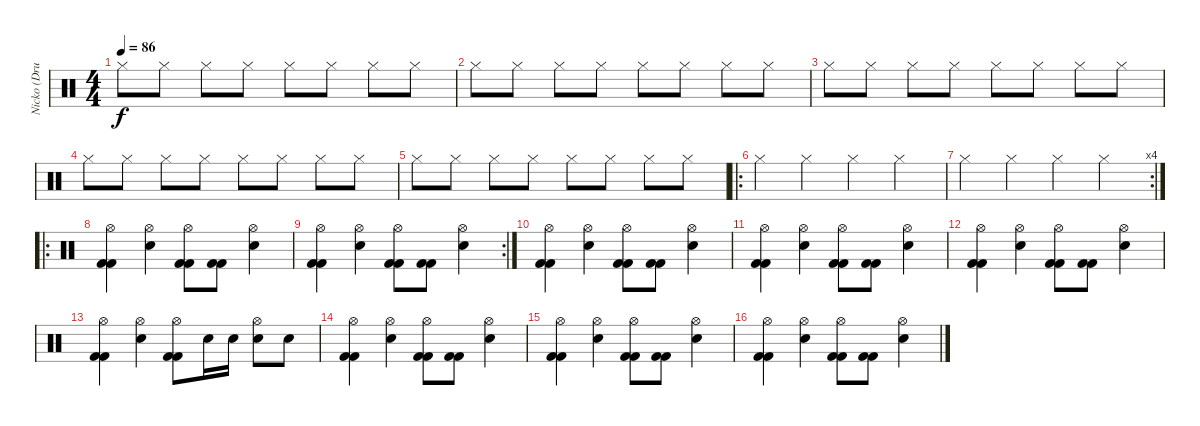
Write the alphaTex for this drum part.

\track ("Nicko (Drums)" "Nicko (Dru") {instrument percussion}
\staff {score}
\articulation defaults
\ts (4 4)
\tempo 86
\clef neutral
\ks c "Hi-Hat (closed)".8{dy f} "Hi-Hat (closed)".8 "Hi-Hat (closed)".8 "Hi-Hat (closed)".8 "Hi-Hat (closed)".8 "Hi-Hat (closed)".8 "Hi-Hat (closed)".8 "Hi-Hat (closed)".8
|
"Hi-Hat (closed)".8 "Hi-Hat (closed)".8 "Hi-Hat (closed)".8 "Hi-Hat (closed)".8 "Hi-Hat (closed)".8 "Hi-Hat (closed)".8 "Hi-Hat (closed)".8 "Hi-Hat (closed)".8 |
"Hi-Hat (closed)".8 "Hi-Hat (closed)".8 "Hi-Hat (closed)".8 "Hi-Hat (closed)".8 "Hi-Hat (closed)".8 "Hi-Hat (closed)".8 "Hi-Hat (closed)".8 "Hi-Hat (closed)".8 |
"Hi-Hat (closed)".8 "Hi-Hat (closed)".8 "Hi-Hat (closed)".8 "Hi-Hat (closed)".8 "Hi-Hat (closed)".8 "Hi-Hat (closed)".8 "Hi-Hat (closed)".8 "Hi-Hat (closed)".8 |
"Hi-Hat (closed)".8 "Hi-Hat (closed)".8 "Hi-Hat (closed)".8 "Hi-Hat (closed)".8 "Hi-Hat (closed)".8 "Hi-Hat (closed)".8 "Hi-Hat (closed)".8 "Hi-Hat (closed)".8 |
\ro "Hi-Hat (closed)".4 "Hi-Hat (closed)".4 "Hi-Hat (closed)".4 "Hi-Hat (closed)".4
|
\rc 4 "Hi-Hat (closed)".4 "Hi-Hat (closed)".4 "Hi-Hat (closed)".4 "Hi-Hat (closed)".4
|
\ro
("Hi-Hat (open)" "Kick (hit) 2" "Kick (hit) 2").4 ("Hi-Hat (open)" "Snare (hit) 2").4 ("Hi-Hat (open)" "Kick (hit) 2" "Kick (hit) 2").8 ("Kick (hit) 2" "Kick (hit) 2").8 ("Hi-Hat (open)" "Snare (hit) 2").4 |
\rc 2
("Hi-Hat (open)" "Kick (hit) 2" "Kick (hit) 2").4 ("Hi-Hat (open)" "Snare (hit) 2").4 ("Hi-Hat (open)" "Kick (hit) 2" "Kick (hit) 2").8 ("Kick (hit) 2" "Kick (hit) 2").8 ("Hi-Hat (open)" "Snare (hit) 2").4 |
("Hi-Hat (open)" "Kick (hit) 2" "Kick (hit) 2").4 ("Hi-Hat (open)" "Snare (hit) 2").4 ("Hi-Hat (open)" "Kick (hit) 2" "Kick (hit) 2").8 ("Kick (hit) 2" "Kick (hit) 2").8 ("Hi-Hat (open)" "Snare (hit) 2").4 |
("Hi-Hat (open)" "Kick (hit) 2" "Kick (hit) 2").4 ("Hi-Hat (open)" "Snare (hit) 2").4 ("Hi-Hat (open)" "Kick (hit) 2" "Kick (hit) 2").8 ("Kick (hit) 2" "Kick (hit) 2").8 ("Hi-Hat (open)" "Snare (hit) 2").4 |
("Hi-Hat (open)" "Kick (hit) 2" "Kick (hit) 2").4 ("Hi-Hat (open)" "Snare (hit) 2").4 ("Hi-Hat (open)" "Kick (hit) 2" "Kick (hit) 2").8 ("Kick (hit) 2" "Kick (hit) 2").8 ("Hi-Hat (open)" "Snare (hit) 2").4 |
("Hi-Hat (open)" "Kick (hit) 2" "Kick (hit) 2").4 ("Hi-Hat (open)" "Snare (hit) 2").4 ("Hi-Hat (open)" "Kick (hit) 2" "Kick (hit) 2").8 "Snare (hit) 2".16 "Snare (hit) 2".16 ("Hi-Hat (open)" "Snare (hit) 2").8 "Snare (hit) 2".8 |
("Hi-Hat (open)" "Kick (hit) 2" "Kick (hit) 2").4 ("Hi-Hat (open)" "Snare (hit) 2").4 ("Hi-Hat (open)" "Kick (hit) 2" "Kick (hit) 2").8 ("Kick (hit) 2" "Kick (hit) 2").8 ("Hi-Hat (open)" "Snare (hit) 2").4 |
("Hi-Hat (open)" "Kick (hit) 2" "Kick (hit) 2").4 ("Hi-Hat (open)" "Snare (hit) 2").4 ("Hi-Hat (open)" "Kick (hit) 2" "Kick (hit) 2").8 ("Kick (hit) 2" "Kick (hit) 2").8 ("Hi-Hat (open)" "Snare (hit) 2").4 |
("Hi-Hat (open)" "Kick (hit) 2" "Kick (hit) 2").4 ("Hi-Hat (open)" "Snare (hit) 2").4 ("Hi-Hat (open)" "Kick (hit) 2" "Kick (hit) 2").8 ("Kick (hit) 2" "Kick (hit) 2").8 ("Hi-Hat (open)" "Snare (hit) 2").4
